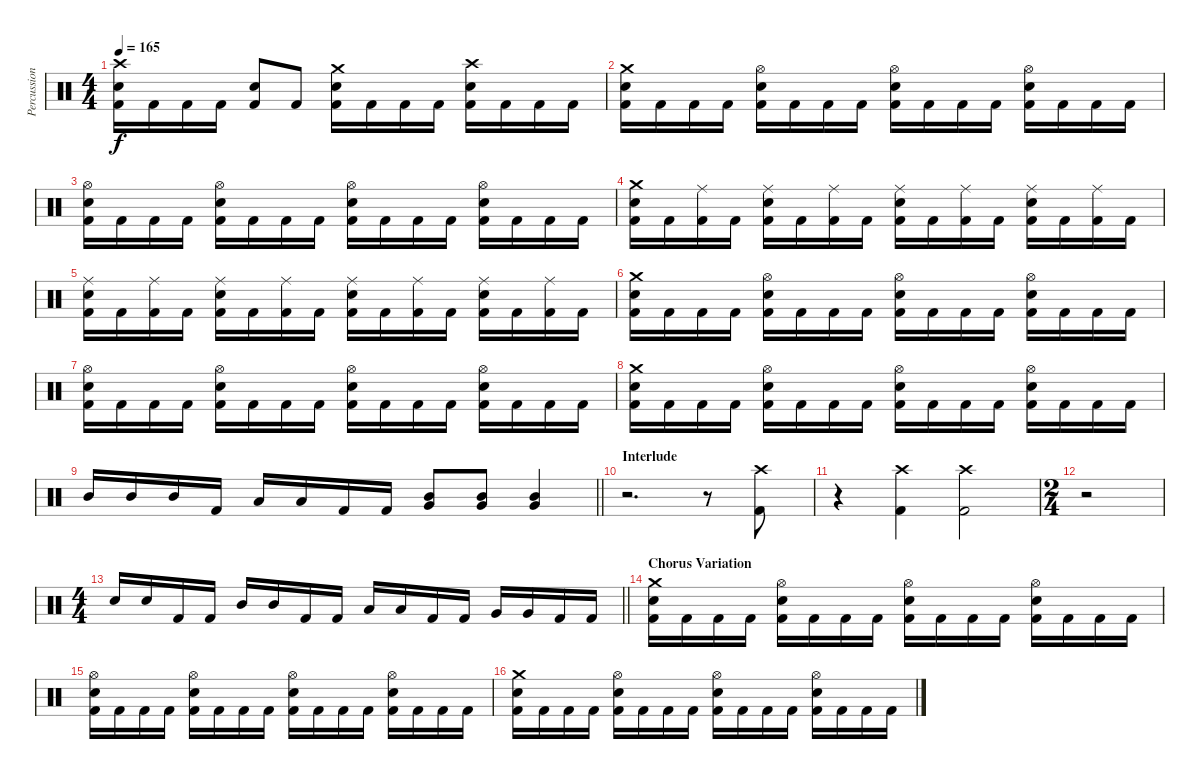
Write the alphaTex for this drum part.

\track ("Percussions" "Percussion") {instrument percussion}
\staff {score}
\articulation defaults
\ts (4 4)
\tempo 165
\clef neutral
\ks c
("Crash high (hit)" "Electric Snare (hit)" "Kick (hit) 2").16{dy f} "Kick (hit) 2".16 "Kick (hit) 2".16 "Kick (hit) 2".16 ("Electric Snare (hit)" "Kick (hit) 2").8 "Kick (hit) 2".8 ("Crash medium (hit)" "Electric Snare (hit)" "Kick (hit) 2").16 "Kick (hit) 2".16 "Kick (hit) 2".16 "Kick (hit) 2".16 ("Crash high (hit)" "Electric Snare (hit)" "Kick (hit) 2").16 "Kick (hit) 2".16 "Kick (hit) 2".16 "Kick (hit) 2".16 |
("Crash medium (hit)" "Electric Snare (hit)" "Kick (hit) 2").16 "Kick (hit) 2".16 "Kick (hit) 2".16 "Kick (hit) 2".16 ("Hi-Hat (open)" "Electric Snare (hit)" "Kick (hit) 2").16 "Kick (hit) 2".16 "Kick (hit) 2".16 "Kick (hit) 2".16 ("Hi-Hat (open)" "Electric Snare (hit)" "Kick (hit) 2").16 "Kick (hit) 2".16 "Kick (hit) 2".16 "Kick (hit) 2".16 ("Hi-Hat (open)" "Electric Snare (hit)" "Kick (hit) 2").16 "Kick (hit) 2".16 "Kick (hit) 2".16 "Kick (hit) 2".16 |
("Hi-Hat (open)" "Electric Snare (hit)" "Kick (hit) 2").16 "Kick (hit) 2".16 "Kick (hit) 2".16 "Kick (hit) 2".16 ("Hi-Hat (open)" "Electric Snare (hit)" "Kick (hit) 2").16 "Kick (hit) 2".16 "Kick (hit) 2".16 "Kick (hit) 2".16 ("Hi-Hat (open)" "Electric Snare (hit)" "Kick (hit) 2").16 "Kick (hit) 2".16 "Kick (hit) 2".16 "Kick (hit) 2".16 ("Hi-Hat (open)" "Electric Snare (hit)" "Kick (hit) 2").16 "Kick (hit) 2".16 "Kick (hit) 2".16 "Kick (hit) 2".16 |
("Crash medium (hit)" "Electric Snare (hit)" "Kick (hit) 2").16 "Kick (hit) 2".16 ("Ride (middle)" "Kick (hit) 2").16 "Kick (hit) 2".16 ("Ride (middle)" "Electric Snare (hit)" "Kick (hit) 2").16 "Kick (hit) 2".16 ("Ride (middle)" "Kick (hit) 2").16 "Kick (hit) 2".16 ("Ride (middle)" "Electric Snare (hit)" "Kick (hit) 2").16 "Kick (hit) 2".16 ("Ride (middle)" "Kick (hit) 2").16 "Kick (hit) 2".16 ("Ride (middle)" "Electric Snare (hit)" "Kick (hit) 2").16 "Kick (hit) 2".16 ("Ride (middle)" "Kick (hit) 2").16 "Kick (hit) 2".16 |
("Ride (middle)" "Electric Snare (hit)" "Kick (hit) 2").16 "Kick (hit) 2".16 ("Ride (middle)" "Kick (hit) 2").16 "Kick (hit) 2".16 ("Ride (middle)" "Electric Snare (hit)" "Kick (hit) 2").16 "Kick (hit) 2".16 ("Ride (middle)" "Kick (hit) 2").16 "Kick (hit) 2".16 ("Ride (middle)" "Electric Snare (hit)" "Kick (hit) 2").16 "Kick (hit) 2".16 ("Ride (middle)" "Kick (hit) 2").16 "Kick (hit) 2".16 ("Ride (middle)" "Electric Snare (hit)" "Kick (hit) 2").16 "Kick (hit) 2".16 ("Ride (middle)" "Kick (hit) 2").16 "Kick (hit) 2".16 |
("Crash medium (hit)" "Electric Snare (hit)" "Kick (hit) 2").16 "Kick (hit) 2".16 "Kick (hit) 2".16 "Kick (hit) 2".16 ("Hi-Hat (open)" "Electric Snare (hit)" "Kick (hit) 2").16 "Kick (hit) 2".16 "Kick (hit) 2".16 "Kick (hit) 2".16 ("Hi-Hat (open)" "Electric Snare (hit)" "Kick (hit) 2").16 "Kick (hit) 2".16 "Kick (hit) 2".16 "Kick (hit) 2".16 ("Hi-Hat (open)" "Electric Snare (hit)" "Kick (hit) 2").16 "Kick (hit) 2".16 "Kick (hit) 2".16 "Kick (hit) 2".16 |
("Hi-Hat (open)" "Electric Snare (hit)" "Kick (hit) 2").16 "Kick (hit) 2".16 "Kick (hit) 2".16 "Kick (hit) 2".16 ("Hi-Hat (open)" "Electric Snare (hit)" "Kick (hit) 2").16 "Kick (hit) 2".16 "Kick (hit) 2".16 "Kick (hit) 2".16 ("Hi-Hat (open)" "Electric Snare (hit)" "Kick (hit) 2").16 "Kick (hit) 2".16 "Kick (hit) 2".16 "Kick (hit) 2".16 ("Hi-Hat (open)" "Electric Snare (hit)" "Kick (hit) 2").16 "Kick (hit) 2".16 "Kick (hit) 2".16 "Kick (hit) 2".16 |
("Crash medium (hit)" "Electric Snare (hit)" "Kick (hit) 2").16 "Kick (hit) 2".16 "Kick (hit) 2".16 "Kick (hit) 2".16 ("Hi-Hat (open)" "Electric Snare (hit)" "Kick (hit) 2").16 "Kick (hit) 2".16 "Kick (hit) 2".16 "Kick (hit) 2".16 ("Hi-Hat (open)" "Electric Snare (hit)" "Kick (hit) 2").16 "Kick (hit) 2".16 "Kick (hit) 2".16 "Kick (hit) 2".16 ("Hi-Hat (open)" "Electric Snare (hit)" "Kick (hit) 2").16 "Kick (hit) 2".16 "Kick (hit) 2".16 "Kick (hit) 2".16 |
\barLineRight lightlight "Mid Tom (hit)".16 "Mid Tom (hit)".16 "Mid Tom (hit)".16 "Kick (hit) 2".16 "Low Tom (hit)".16 "Low Tom (hit)".16 "Kick (hit) 2".16 "Kick (hit) 2".16
("Mid Tom (hit)" "Very Low Tom (hit)").8 ("Mid Tom (hit)" "Very Low Tom (hit)").8 ("Mid Tom (hit)" "Very Low Tom (hit)").4 |
\section ("" "Interlude")
r.2{d} r.8 ("Crash high (hit)" "Kick (hit) 2").8 |
r.4 ("Crash high (hit)" "Kick (hit) 2").4 ("Crash high (hit)" "Kick (hit) 2").2 |
\ts (2 4)
r.2 |
\ts (4 4)
\barLineRight lightlight "Electric Snare (hit)".16 "Electric Snare (hit)".16 "Kick (hit) 2".16 "Kick (hit) 2".16 "Mid Tom (hit)".16 "Mid Tom (hit)".16 "Kick (hit) 2".16 "Kick (hit) 2".16 "Low Tom (hit)".16 "Low Tom (hit)".16 "Kick (hit) 2".16 "Kick (hit) 2".16 "Very Low Tom (hit)".16 "Very Low Tom (hit)".16 "Kick (hit) 2".16 "Kick (hit) 2".16
|
\section ("" "Chorus Variation")
("Crash medium (hit)" "Electric Snare (hit)" "Kick (hit) 2").16 "Kick (hit) 2".16 "Kick (hit) 2".16 "Kick (hit) 2".16 ("Hi-Hat (open)" "Electric Snare (hit)" "Kick (hit) 2").16 "Kick (hit) 2".16 "Kick (hit) 2".16 "Kick (hit) 2".16 ("Hi-Hat (open)" "Electric Snare (hit)" "Kick (hit) 2").16 "Kick (hit) 2".16 "Kick (hit) 2".16 "Kick (hit) 2".16 ("Hi-Hat (open)" "Electric Snare (hit)" "Kick (hit) 2").16 "Kick (hit) 2".16 "Kick (hit) 2".16 "Kick (hit) 2".16 |
("Hi-Hat (open)" "Electric Snare (hit)" "Kick (hit) 2").16 "Kick (hit) 2".16 "Kick (hit) 2".16 "Kick (hit) 2".16 ("Hi-Hat (open)" "Electric Snare (hit)" "Kick (hit) 2").16 "Kick (hit) 2".16 "Kick (hit) 2".16 "Kick (hit) 2".16 ("Hi-Hat (open)" "Electric Snare (hit)" "Kick (hit) 2").16 "Kick (hit) 2".16 "Kick (hit) 2".16 "Kick (hit) 2".16 ("Hi-Hat (open)" "Electric Snare (hit)" "Kick (hit) 2").16 "Kick (hit) 2".16 "Kick (hit) 2".16 "Kick (hit) 2".16 |
("Crash medium (hit)" "Electric Snare (hit)" "Kick (hit) 2").16 "Kick (hit) 2".16 "Kick (hit) 2".16 "Kick (hit) 2".16 ("Hi-Hat (open)" "Electric Snare (hit)" "Kick (hit) 2").16 "Kick (hit) 2".16 "Kick (hit) 2".16 "Kick (hit) 2".16 ("Hi-Hat (open)" "Electric Snare (hit)" "Kick (hit) 2").16 "Kick (hit) 2".16 "Kick (hit) 2".16 "Kick (hit) 2".16 ("Hi-Hat (open)" "Electric Snare (hit)" "Kick (hit) 2").16 "Kick (hit) 2".16 "Kick (hit) 2".16 "Kick (hit) 2".16
